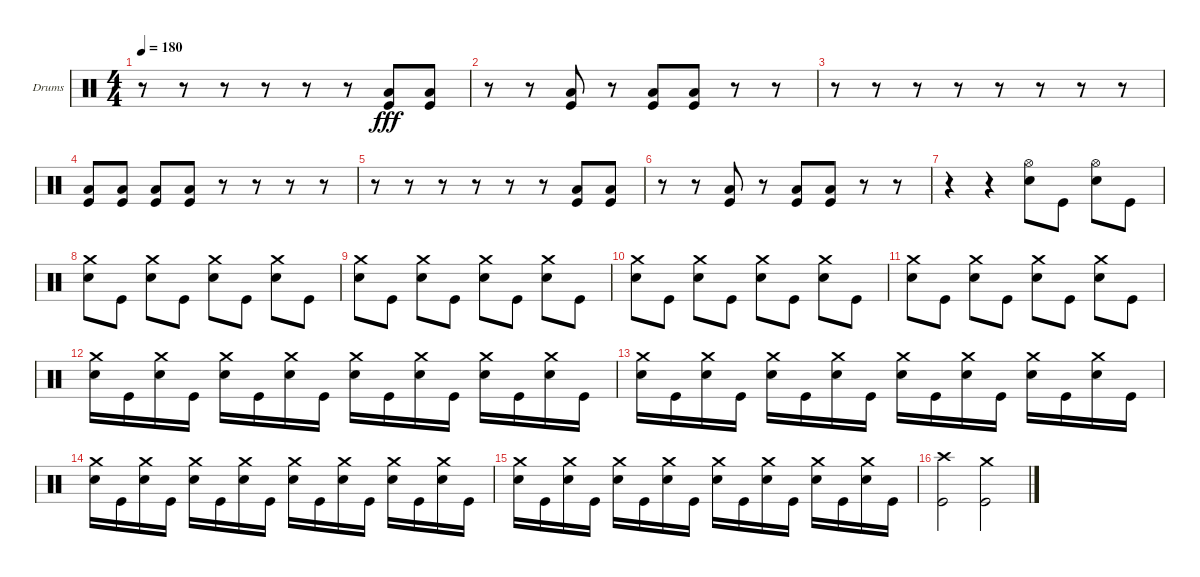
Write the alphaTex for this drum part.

\bracketExtendMode groupsimilarinstruments
\firstSystemTrackNameOrientation horizontal
\otherSystemsTrackNameOrientation horizontal
\track ("Drumkit" "Drums") {instrument percussion}
\staff {score}
\articulation defaults
\ts (4 4)
\tempo 180
\clef neutral
\ks c
r.8{dy fff} r.8 r.8 r.8 r.8 r.8 ("Low Tom (hit)" "Kick (hit)").8 ("Low Tom (hit)" "Kick (hit)").8 |
r.8 r.8 ("Low Tom (hit)" "Kick (hit)").8 r.8 ("Low Tom (hit)" "Kick (hit)").8 ("Low Tom (hit)" "Kick (hit)").8 r.8 r.8 |
r.8 r.8 r.8 r.8 r.8 r.8 r.8 r.8 |
("Low Tom (hit)" "Kick (hit)").8 ("Low Tom (hit)" "Kick (hit)").8 ("Low Tom (hit)" "Kick (hit)").8 ("Low Tom (hit)" "Kick (hit)").8 r.8 r.8 r.8 r.8 |
r.8 r.8 r.8 r.8 r.8 r.8 ("Low Tom (hit)" "Kick (hit)").8 ("Low Tom (hit)" "Kick (hit)").8 |
r.8 r.8 ("Low Tom (hit)" "Kick (hit)").8 r.8 ("Low Tom (hit)" "Kick (hit)").8 ("Low Tom (hit)" "Kick (hit)").8 r.8 r.8 |
r.4 r.4 ("Hi-Hat (open)" "Snare (hit) 2").8 "Kick (hit)".8 ("Hi-Hat (open)" "Snare (hit) 2").8 "Kick (hit)".8 |
("Crash medium (hit)" "Snare (hit) 2").8 "Kick (hit)".8 ("Crash medium (hit)" "Snare (hit) 2").8 "Kick (hit)".8 ("Crash medium (hit)" "Snare (hit) 2").8 "Kick (hit)".8 ("Crash medium (hit)" "Snare (hit) 2").8 "Kick (hit)".8 |
("Crash medium (hit)" "Snare (hit) 2").8 "Kick (hit)".8 ("Crash medium (hit)" "Snare (hit) 2").8 "Kick (hit)".8 ("Crash medium (hit)" "Snare (hit) 2").8 "Kick (hit)".8 ("Crash medium (hit)" "Snare (hit) 2").8 "Kick (hit)".8 |
("Crash medium (hit)" "Snare (hit) 2").8 "Kick (hit)".8 ("Crash medium (hit)" "Snare (hit) 2").8 "Kick (hit)".8 ("Crash medium (hit)" "Snare (hit) 2").8 "Kick (hit)".8 ("Crash medium (hit)" "Snare (hit) 2").8 "Kick (hit)".8 |
("Crash medium (hit)" "Snare (hit) 2").8 "Kick (hit)".8 ("Crash medium (hit)" "Snare (hit) 2").8 "Kick (hit)".8 ("Crash medium (hit)" "Snare (hit) 2").8 "Kick (hit)".8 ("Crash medium (hit)" "Snare (hit) 2").8 "Kick (hit)".8 |
("Crash medium (hit)" "Snare (hit) 2").16 "Kick (hit)".16 ("Crash medium (hit)" "Snare (hit) 2").16 "Kick (hit)".16 ("Crash medium (hit)" "Snare (hit) 2").16 "Kick (hit)".16 ("Crash medium (hit)" "Snare (hit) 2").16 "Kick (hit)".16 ("Crash medium (hit)" "Snare (hit) 2").16 "Kick (hit)".16 ("Crash medium (hit)" "Snare (hit) 2").16 "Kick (hit)".16 ("Crash medium (hit)" "Snare (hit) 2").16 "Kick (hit)".16 ("Crash medium (hit)" "Snare (hit) 2").16 "Kick (hit)".16 |
("Crash medium (hit)" "Snare (hit) 2").16 "Kick (hit)".16 ("Crash medium (hit)" "Snare (hit) 2").16 "Kick (hit)".16 ("Crash medium (hit)" "Snare (hit) 2").16 "Kick (hit)".16 ("Crash medium (hit)" "Snare (hit) 2").16 "Kick (hit)".16 ("Crash medium (hit)" "Snare (hit) 2").16 "Kick (hit)".16 ("Crash medium (hit)" "Snare (hit) 2").16 "Kick (hit)".16 ("Crash medium (hit)" "Snare (hit) 2").16 "Kick (hit)".16 ("Crash medium (hit)" "Snare (hit) 2").16 "Kick (hit)".16 |
("Crash medium (hit)" "Snare (hit) 2").16 "Kick (hit)".16 ("Crash medium (hit)" "Snare (hit) 2").16 "Kick (hit)".16 ("Crash medium (hit)" "Snare (hit) 2").16 "Kick (hit)".16 ("Crash medium (hit)" "Snare (hit) 2").16 "Kick (hit)".16 ("Crash medium (hit)" "Snare (hit) 2").16 "Kick (hit)".16 ("Crash medium (hit)" "Snare (hit) 2").16 "Kick (hit)".16 ("Crash medium (hit)" "Snare (hit) 2").16 "Kick (hit)".16 ("Crash medium (hit)" "Snare (hit) 2").16 "Kick (hit)".16 |
("Crash medium (hit)" "Snare (hit) 2").16 "Kick (hit)".16 ("Crash medium (hit)" "Snare (hit) 2").16 "Kick (hit)".16 ("Crash medium (hit)" "Snare (hit) 2").16 "Kick (hit)".16 ("Crash medium (hit)" "Snare (hit) 2").16 "Kick (hit)".16 ("Crash medium (hit)" "Snare (hit) 2").16 "Kick (hit)".16 ("Crash medium (hit)" "Snare (hit) 2").16 "Kick (hit)".16 ("Crash medium (hit)" "Snare (hit) 2").16 "Kick (hit)".16 ("Crash medium (hit)" "Snare (hit) 2").16 "Kick (hit)".16 |
("Crash high (hit)" "Kick (hit)").2 ("Crash medium (hit)" "Kick (hit)").2
